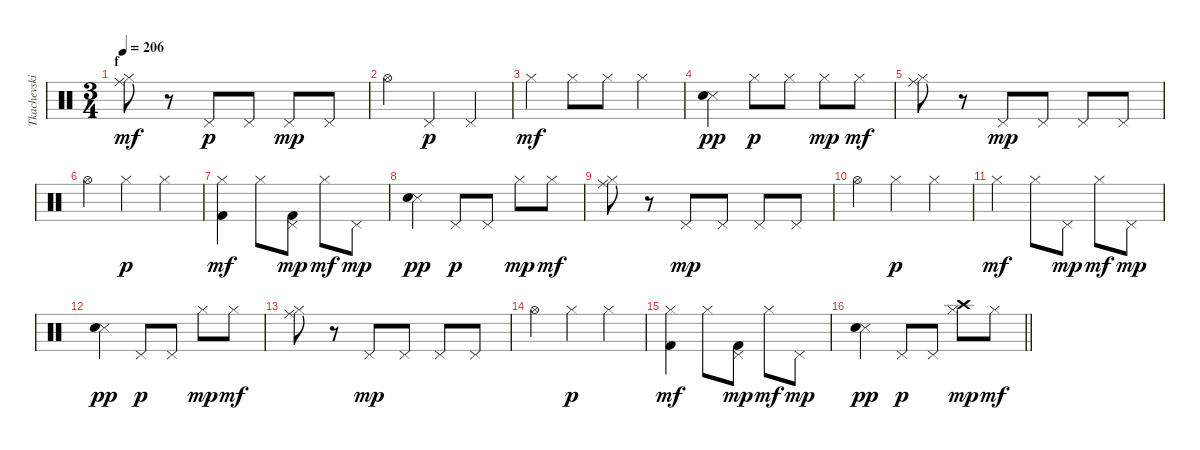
\track ("Tkachevskiy A" "Tkachevski") {instrument percussion}
\staff {score}
\articulation defaults
\ts (3 4)
\section ("" "f")
\tempo 206
\clef neutral
\ks c
("Hi-Hat (closed)" "Ride (middle)").8{dy mf} r.8 "Pedal Hi-Hat (hit)".8{dy p} "Pedal Hi-Hat (hit)".8 "Pedal Hi-Hat (hit)".8{dy mp} "Pedal Hi-Hat (hit)".8 |
"Hi-Hat (open)".4 "Pedal Hi-Hat (hit)".4{dy p} "Pedal Hi-Hat (hit)".4 |
"Hi-Hat (closed)".4{dy mf} "Hi-Hat (closed)".8 "Hi-Hat (closed)".8 "Hi-Hat (closed)".4 |
("Snare (side stick) 3" "Snare (hit) 2").4{dy pp} "Hi-Hat (closed)".8{dy p} "Hi-Hat (closed)".8 "Hi-Hat (closed)".8{dy mp} "Hi-Hat (closed)".8{dy mf} |
("Hi-Hat (closed)" "Ride (middle)").8 r.8 "Pedal Hi-Hat (hit)".8{dy mp} "Pedal Hi-Hat (hit)".8 "Pedal Hi-Hat (hit)".8 "Pedal Hi-Hat (hit)".8 |
"Hi-Hat (open)".4 "Hi-Hat (closed)".4{dy p} "Hi-Hat (closed)".4 |
("Hi-Hat (closed)" "Kick (hit) 2").4{dy mf} "Hi-Hat (closed)".8 ("Pedal Hi-Hat (hit)" "Kick (hit) 2").8{dy mp} "Hi-Hat (closed)".8{dy mf} "Pedal Hi-Hat (hit)".8{dy mp} |
("Snare (side stick) 3" "Snare (hit) 2").4{dy pp} "Pedal Hi-Hat (hit)".8{dy p} "Pedal Hi-Hat (hit)".8 "Hi-Hat (closed)".8{dy mp} "Hi-Hat (closed)".8{dy mf} |
("Hi-Hat (closed)" "Ride (middle)").8 r.8 "Pedal Hi-Hat (hit)".8{dy mp} "Pedal Hi-Hat (hit)".8 "Pedal Hi-Hat (hit)".8 "Pedal Hi-Hat (hit)".8 |
"Hi-Hat (open)".4 "Hi-Hat (closed)".4{dy p} "Hi-Hat (closed)".4 |
"Hi-Hat (closed)".4{dy mf} "Hi-Hat (closed)".8 "Pedal Hi-Hat (hit)".8{dy mp} "Hi-Hat (closed)".8{dy mf} "Pedal Hi-Hat (hit)".8{dy mp} |
("Snare (side stick) 3" "Snare (hit) 2").4{dy pp} "Pedal Hi-Hat (hit)".8{dy p} "Pedal Hi-Hat (hit)".8 "Hi-Hat (closed)".8{dy mp} "Hi-Hat (closed)".8{dy mf} |
("Hi-Hat (closed)" "Ride (middle)").8 r.8 "Pedal Hi-Hat (hit)".8{dy mp} "Pedal Hi-Hat (hit)".8 "Pedal Hi-Hat (hit)".8 "Pedal Hi-Hat (hit)".8 |
"Hi-Hat (open)".4 "Hi-Hat (closed)".4{dy p} "Hi-Hat (closed)".4 |
("Hi-Hat (closed)" "Kick (hit) 2").4{dy mf} "Hi-Hat (closed)".8 ("Pedal Hi-Hat (hit)" "Kick (hit) 2").8{dy mp} "Hi-Hat (closed)".8{dy mf} "Pedal Hi-Hat (hit)".8{dy mp} |
\barLineRight lightlight
("Snare (side stick) 3" "Snare (hit) 2").4{dy pp} "Pedal Hi-Hat (hit)".8{dy p} "Pedal Hi-Hat (hit)".8 ("Hi-Hat (closed)" "Crash high (hit)").8{dy mp} "Hi-Hat (closed)".8{dy mf}
